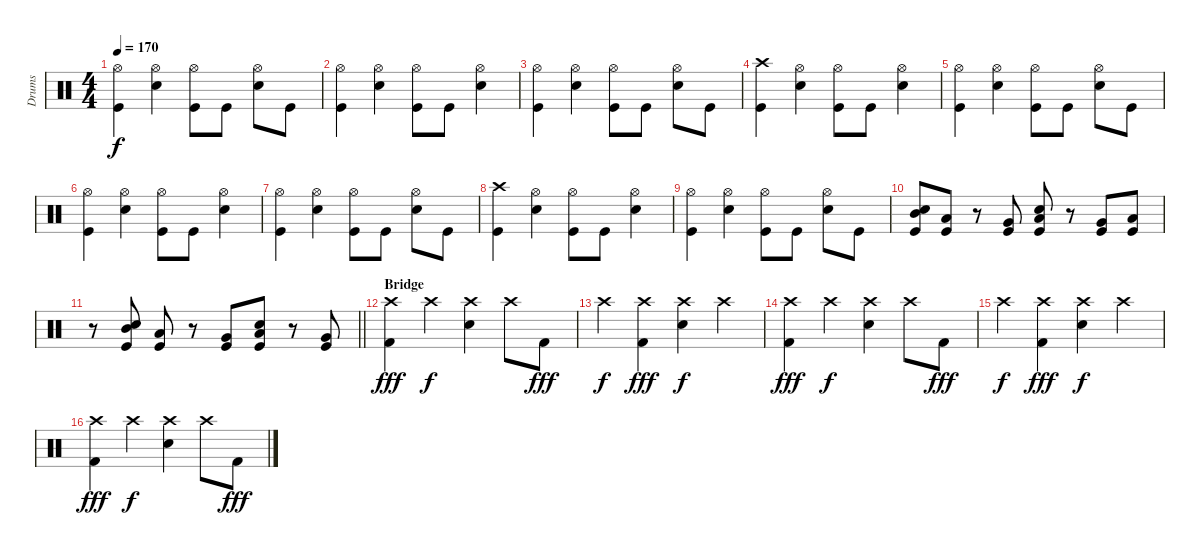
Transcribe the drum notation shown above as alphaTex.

\track ("Drums" "Drums") {instrument percussion}
\staff {score}
\articulation defaults
\ts (4 4)
\tempo 170
\clef neutral
\ks c
("Hi-Hat (open)" "Kick (hit)").4{dy f} ("Hi-Hat (open)" "Electric Snare (hit)").4 ("Hi-Hat (open)" "Kick (hit)").8 "Kick (hit)".8 ("Hi-Hat (open)" "Electric Snare (hit)").8 "Kick (hit)".8 |
("Hi-Hat (open)" "Kick (hit)").4 ("Hi-Hat (open)" "Electric Snare (hit)").4 ("Hi-Hat (open)" "Kick (hit)").8 "Kick (hit)".8 ("Hi-Hat (open)" "Electric Snare (hit)").4 |
("Hi-Hat (open)" "Kick (hit)").4 ("Hi-Hat (open)" "Electric Snare (hit)").4 ("Hi-Hat (open)" "Kick (hit)").8 "Kick (hit)".8 ("Hi-Hat (open)" "Electric Snare (hit)").8 "Kick (hit)".8 |
("Crash high (hit)" "Kick (hit)").4 ("Hi-Hat (open)" "Electric Snare (hit)").4 ("Hi-Hat (open)" "Kick (hit)").8 "Kick (hit)".8 ("Hi-Hat (open)" "Electric Snare (hit)").4 |
("Hi-Hat (open)" "Kick (hit)").4 ("Hi-Hat (open)" "Electric Snare (hit)").4 ("Hi-Hat (open)" "Kick (hit)").8 "Kick (hit)".8 ("Hi-Hat (open)" "Electric Snare (hit)").8 "Kick (hit)".8 |
("Hi-Hat (open)" "Kick (hit)").4 ("Hi-Hat (open)" "Electric Snare (hit)").4 ("Hi-Hat (open)" "Kick (hit)").8 "Kick (hit)".8 ("Hi-Hat (open)" "Electric Snare (hit)").4 |
("Hi-Hat (open)" "Kick (hit)").4 ("Hi-Hat (open)" "Electric Snare (hit)").4 ("Hi-Hat (open)" "Kick (hit)").8 "Kick (hit)".8 ("Hi-Hat (open)" "Electric Snare (hit)").8 "Kick (hit)".8 |
("Crash high (hit)" "Kick (hit)").4 ("Hi-Hat (open)" "Electric Snare (hit)").4 ("Hi-Hat (open)" "Kick (hit)").8 "Kick (hit)".8 ("Hi-Hat (open)" "Electric Snare (hit)").4 |
("Hi-Hat (open)" "Kick (hit)").4 ("Hi-Hat (open)" "Electric Snare (hit)").4 ("Hi-Hat (open)" "Kick (hit)").8 "Kick (hit)".8 ("Hi-Hat (open)" "Electric Snare (hit)").8 "Kick (hit)".8 |
("Mid Tom (hit)" "Electric Snare (hit)" "Kick (hit)").8 ("Low Tom (hit)" "Kick (hit)").8 r.8 ("Very Low Tom (hit)" "Kick (hit)").8 ("Low Floor Tom (hit)" "Electric Snare (hit)" "Kick (hit)").8 r.8 ("Very Low Tom (hit)" "Kick (hit)").8 ("Low Tom (hit)" "Kick (hit)").8 |
\barLineRight lightlight
r.8 ("Mid Tom (hit)" "Electric Snare (hit)" "Kick (hit)").8 ("Low Tom (hit)" "Kick (hit)").8 r.8 ("Very Low Tom (hit)" "Kick (hit)").8 ("Low Floor Tom (hit)" "Electric Snare (hit)" "Kick (hit)").8 r.8 ("Very Low Tom (hit)" "Kick (hit)").8 |
\section ("" "Bridge ")
("Crash high (hit)" "Kick (hit) 2").4{dy fff} "Crash high (hit)".4{dy f} ("Crash high (hit)" "Electric Snare (hit)").4 "Crash high (hit)".8 "Kick (hit) 2".8{dy fff} |
"Crash high (hit)".4{dy f} ("Crash high (hit)" "Kick (hit) 2").4{dy fff} ("Crash high (hit)" "Electric Snare (hit)").4{dy f} "Crash high (hit)".4 |
("Crash high (hit)" "Kick (hit) 2").4{dy fff} "Crash high (hit)".4{dy f} ("Crash high (hit)" "Electric Snare (hit)").4 "Crash high (hit)".8 "Kick (hit) 2".8{dy fff} |
"Crash high (hit)".4{dy f} ("Crash high (hit)" "Kick (hit) 2").4{dy fff} ("Crash high (hit)" "Electric Snare (hit)").4{dy f} "Crash high (hit)".4 |
("Crash high (hit)" "Kick (hit) 2").4{dy fff} "Crash high (hit)".4{dy f} ("Crash high (hit)" "Electric Snare (hit)").4 "Crash high (hit)".8 "Kick (hit) 2".8{dy fff}
